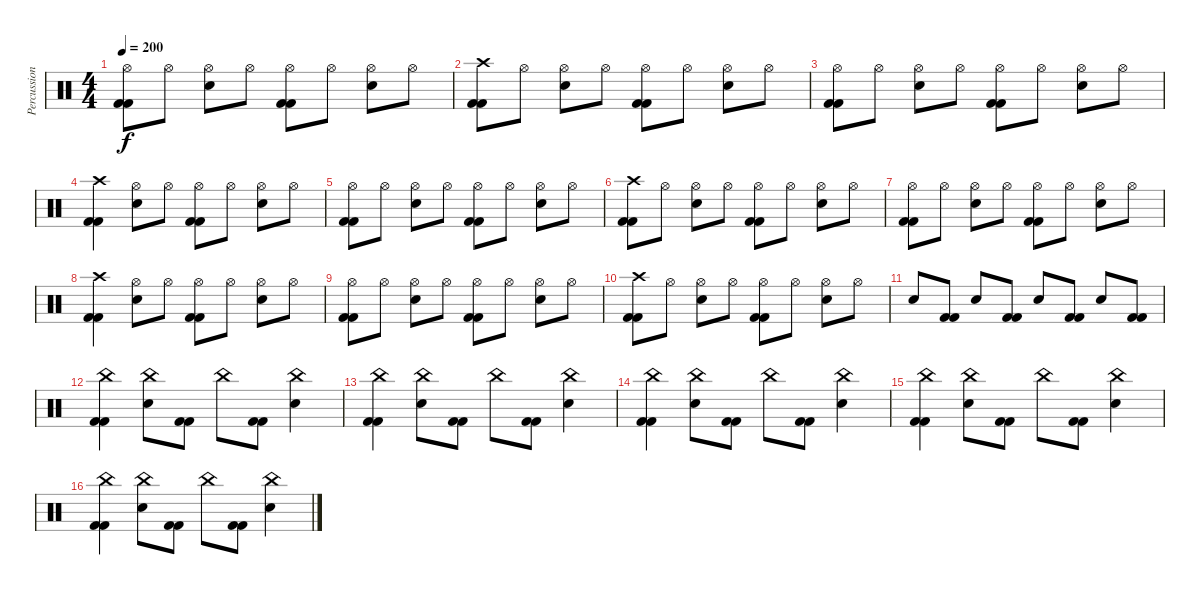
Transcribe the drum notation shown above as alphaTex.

\track ("Percussion" "Percussion") {instrument percussion}
\staff {score}
\articulation defaults
\ts (4 4)
\tempo 200
\clef neutral
\ks c
("Hi-Hat (open)" "Kick (hit) 2" "Kick (hit) 2").8{dy f} "Hi-Hat (open)".8 ("Hi-Hat (open)" "Snare (hit) 2").8 "Hi-Hat (open)".8 ("Hi-Hat (open)" "Kick (hit) 2" "Kick (hit) 2").8 "Hi-Hat (open)".8 ("Hi-Hat (open)" "Snare (hit) 2").8 "Hi-Hat (open)".8 |
("Crash high (hit)" "Kick (hit) 2" "Kick (hit) 2").8 "Hi-Hat (open)".8 ("Hi-Hat (open)" "Snare (hit) 2").8 "Hi-Hat (open)".8 ("Hi-Hat (open)" "Kick (hit) 2" "Kick (hit) 2").8 "Hi-Hat (open)".8 ("Hi-Hat (open)" "Snare (hit) 2").8 "Hi-Hat (open)".8 |
("Hi-Hat (open)" "Kick (hit) 2" "Kick (hit) 2").8 "Hi-Hat (open)".8 ("Hi-Hat (open)" "Snare (hit) 2").8 "Hi-Hat (open)".8 ("Hi-Hat (open)" "Kick (hit) 2" "Kick (hit) 2").8 "Hi-Hat (open)".8 ("Hi-Hat (open)" "Snare (hit) 2").8 "Hi-Hat (open)".8 |
("Crash high (hit)" "Kick (hit) 2" "Kick (hit) 2").4 ("Hi-Hat (open)" "Snare (hit) 2").8 "Hi-Hat (open)".8 ("Hi-Hat (open)" "Kick (hit) 2" "Kick (hit) 2").8 "Hi-Hat (open)".8 ("Hi-Hat (open)" "Snare (hit) 2").8 "Hi-Hat (open)".8 |
("Hi-Hat (open)" "Kick (hit) 2" "Kick (hit) 2").8 "Hi-Hat (open)".8 ("Hi-Hat (open)" "Snare (hit) 2").8 "Hi-Hat (open)".8 ("Hi-Hat (open)" "Kick (hit) 2" "Kick (hit) 2").8 "Hi-Hat (open)".8 ("Hi-Hat (open)" "Snare (hit) 2").8 "Hi-Hat (open)".8 |
("Crash high (hit)" "Kick (hit) 2" "Kick (hit) 2").8 "Hi-Hat (open)".8 ("Hi-Hat (open)" "Snare (hit) 2").8 "Hi-Hat (open)".8 ("Hi-Hat (open)" "Kick (hit) 2" "Kick (hit) 2").8 "Hi-Hat (open)".8 ("Hi-Hat (open)" "Snare (hit) 2").8 "Hi-Hat (open)".8 |
("Hi-Hat (open)" "Kick (hit) 2" "Kick (hit) 2").8 "Hi-Hat (open)".8 ("Hi-Hat (open)" "Snare (hit) 2").8 "Hi-Hat (open)".8 ("Hi-Hat (open)" "Kick (hit) 2" "Kick (hit) 2").8 "Hi-Hat (open)".8 ("Hi-Hat (open)" "Snare (hit) 2").8 "Hi-Hat (open)".8 |
("Crash high (hit)" "Kick (hit) 2" "Kick (hit) 2").4 ("Hi-Hat (open)" "Snare (hit) 2").8 "Hi-Hat (open)".8 ("Hi-Hat (open)" "Kick (hit) 2" "Kick (hit) 2").8 "Hi-Hat (open)".8 ("Hi-Hat (open)" "Snare (hit) 2").8 "Hi-Hat (open)".8 |
("Hi-Hat (open)" "Kick (hit) 2" "Kick (hit) 2").8 "Hi-Hat (open)".8 ("Hi-Hat (open)" "Snare (hit) 2").8 "Hi-Hat (open)".8 ("Hi-Hat (open)" "Kick (hit) 2" "Kick (hit) 2").8 "Hi-Hat (open)".8 ("Hi-Hat (open)" "Snare (hit) 2").8 "Hi-Hat (open)".8 |
("Crash high (hit)" "Kick (hit) 2" "Kick (hit) 2").8 "Hi-Hat (open)".8 ("Hi-Hat (open)" "Snare (hit) 2").8 "Hi-Hat (open)".8 ("Hi-Hat (open)" "Kick (hit) 2" "Kick (hit) 2").8 "Hi-Hat (open)".8 ("Hi-Hat (open)" "Snare (hit) 2").8 "Hi-Hat (open)".8 |
"Snare (hit) 2".8 ("Kick (hit) 2" "Kick (hit) 2").8 "Snare (hit) 2".8 ("Kick (hit) 2" "Kick (hit) 2").8 "Snare (hit) 2".8 ("Kick (hit) 2" "Kick (hit) 2").8 "Snare (hit) 2".8 ("Kick (hit) 2" "Kick (hit) 2").8 |
("China (hit)" "Kick (hit) 2" "Kick (hit) 2").4 ("China (hit)" "Snare (hit) 2").8 ("Kick (hit) 2" "Kick (hit) 2").8 "China (hit)".8 ("Kick (hit) 2" "Kick (hit) 2").8 ("China (hit)" "Snare (hit) 2").4 |
("China (hit)" "Kick (hit) 2" "Kick (hit) 2").4 ("China (hit)" "Snare (hit) 2").8 ("Kick (hit) 2" "Kick (hit) 2").8 "China (hit)".8 ("Kick (hit) 2" "Kick (hit) 2").8 ("China (hit)" "Snare (hit) 2").4 |
("China (hit)" "Kick (hit) 2" "Kick (hit) 2").4 ("China (hit)" "Snare (hit) 2").8 ("Kick (hit) 2" "Kick (hit) 2").8 "China (hit)".8 ("Kick (hit) 2" "Kick (hit) 2").8 ("China (hit)" "Snare (hit) 2").4 |
("China (hit)" "Kick (hit) 2" "Kick (hit) 2").4 ("China (hit)" "Snare (hit) 2").8 ("Kick (hit) 2" "Kick (hit) 2").8 "China (hit)".8 ("Kick (hit) 2" "Kick (hit) 2").8 ("China (hit)" "Snare (hit) 2").4 |
("China (hit)" "Kick (hit) 2" "Kick (hit) 2").4 ("China (hit)" "Snare (hit) 2").8 ("Kick (hit) 2" "Kick (hit) 2").8 "China (hit)".8 ("Kick (hit) 2" "Kick (hit) 2").8 ("China (hit)" "Snare (hit) 2").4
